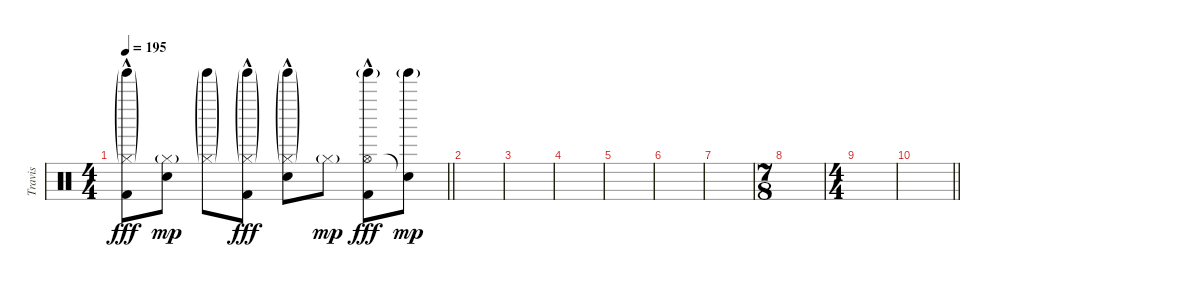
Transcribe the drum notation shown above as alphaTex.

\track ("Travis" "Travis") {instrument percussion}
\staff {score}
\articulation defaults
\ts (4 4)
\tempo 195
\clef neutral
\barLineRight lightlight
\ks c
("Tinkle Bell (hit)"{g} "Hi-Hat (closed)"{g} "Kick (hit) 2"{hac}).8{dy fff} ("Hi-Hat (closed)"{g} "Electric Snare (hit)").8{dy mp} ("Tinkle Bell (hit)"{g} "Hi-Hat (closed)"{g}).8 ("Tinkle Bell (hit)"{g} "Hi-Hat (closed)"{g} "Kick (hit) 2"{hac}).8{dy fff} ("Tinkle Bell (hit)"{g} "Hi-Hat (closed)"{g} "Electric Snare (hit)"{hac}).8 "Hi-Hat (closed)"{g}.8{dy mp} ("Tinkle Bell (hit)"{g} "Hi-Hat (open)" "Kick (hit) 2"{hac}).8{dy fff} ("Tinkle Bell (hit)"{g} "Snare (hit)"{t}).8{dy mp} |
|
|
|
|
|
|
\ts (7 8)
|
\ts (4 4)
|
\barLineRight lightlight
